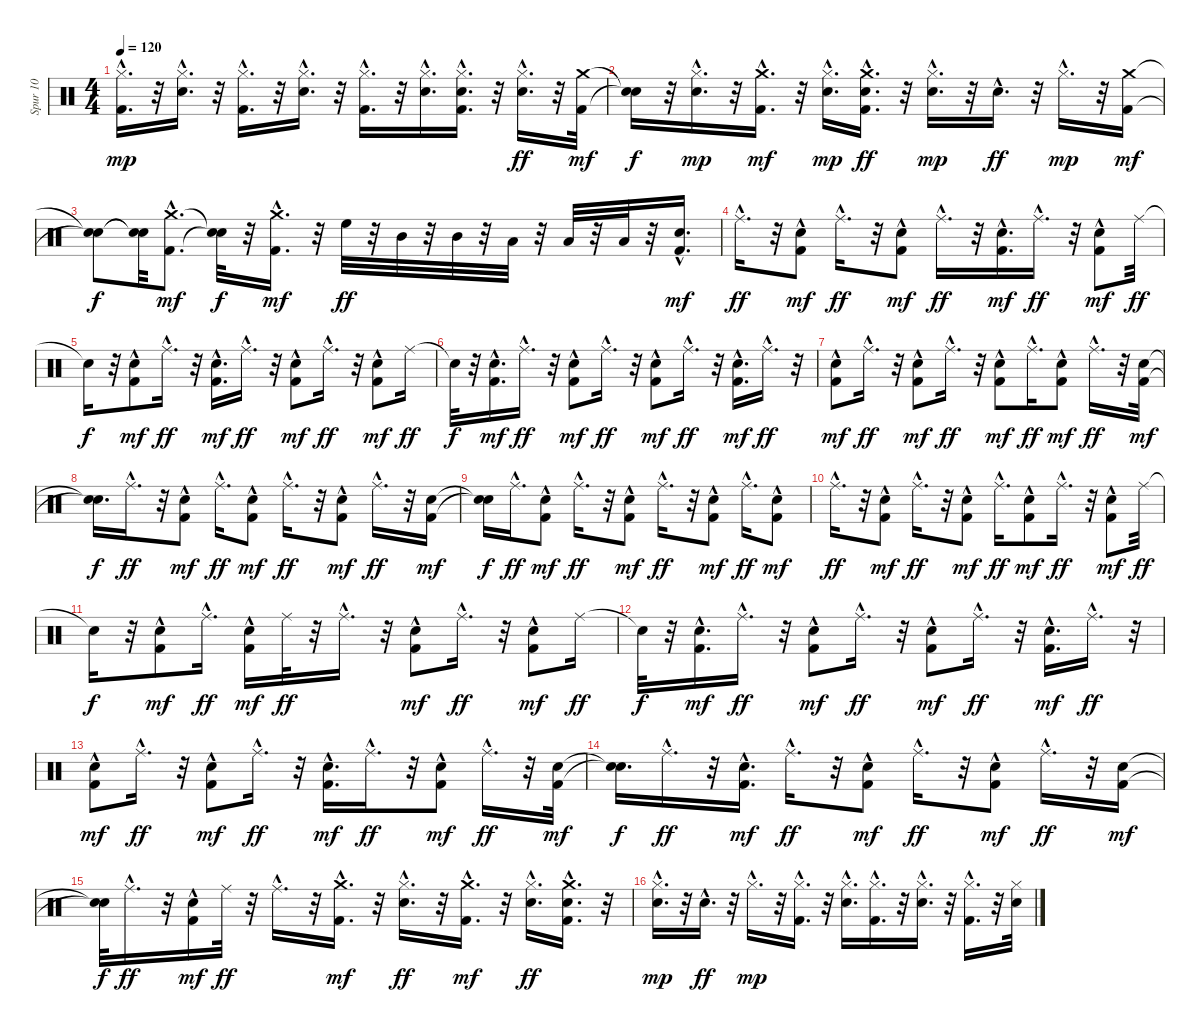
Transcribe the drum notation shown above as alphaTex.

\track ("Spur 10" "Spur 10") {instrument percussion}
\staff {score}
\articulation defaults
\ts (4 4)
\tempo 120
\clef neutral
\ks c
("Kick (hit) 2"{hac} "Hi-Hat (closed)"{hac}).16{d dy mp} r.32 ("Snare (hit) 2"{hac} "Hi-Hat (closed)"{hac}).16{d} r.32 ("Hi-Hat (closed)"{hac} "Kick (hit) 2"{hac}).16{d} r.32 ("Snare (hit) 2"{hac} "Hi-Hat (closed)"{hac}).16{d} r.32 ("Kick (hit) 2"{hac} "Hi-Hat (closed)"{hac}).16{d} r.32 ("Snare (hit) 2"{hac} "Hi-Hat (closed)"{hac}).16{d} ("Kick (hit) 2"{hac} "Snare (hit) 2"{hac} "Hi-Hat (closed)"{hac}).16{d} r.32 ("Hi-Hat (closed)"{hac} "Snare (hit) 2"{hac}).16{d dy ff} r.32 ("Kick (hit) 2" "Crash medium (hit)").32{dy mf} |
("Snare (hit)"{t} "Snare (hit)"{t}).16{dy f} r.32 ("Snare (hit) 2"{hac} "Hi-Hat (closed)"{hac}).16{d dy mp} r.32 ("Crash medium (hit)"{hac} "Kick (hit) 2"{hac}).16{d dy mf} r.32 ("Snare (hit) 2"{hac} "Hi-Hat (closed)"{hac}).16{d dy mp} ("Crash medium (hit)"{hac} "Snare (hit) 2"{hac} "Kick (hit) 2").16{d dy ff} r.32 ("Snare (hit) 2"{hac} "Hi-Hat (closed)"{hac}).16{d dy mp} r.32 "Snare (hit) 2"{hac}.16{d dy ff} r.32 "Hi-Hat (closed)"{hac}.16{d dy mp} r.32 ("Crash medium (hit)" "Kick (hit) 2").16{dy mf} |
("Snare (hit)"{t} "Snare (hit)"{t}).8{dy f} ("Snare (hit)"{t} "Snare (hit)"{t}).32 ("Crash medium (hit)"{hac} "Kick (hit) 2"{hac}).8{d dy mf} ("Snare (hit)"{t} "Snare (hit)"{t}).32{dy f} r.32 ("Crash medium (hit)"{hac} "Kick (hit) 2"{hac}).16{d dy mf} r.32 "High Floor Tom (hit)".32{dy ff} r.32 "Mid Tom (hit)".32 r.32 "Mid Tom (hit)".32 r.32 "Low Tom (hit)".32 r.32 "Low Tom (hit)".32 r.32 "Low Floor Tom (hit)".32 r.32 ("Kick (hit) 2"{hac} "Hand Clap (hit)"{hac}).16{d dy mf} |
"Ride (middle)"{hac}.16{d dy ff} r.32 ("Hand Clap (hit)"{hac} "Kick (hit) 2"{hac}).8{dy mf} "Ride (middle)"{hac}.16{d dy ff} r.32 ("Hand Clap (hit)"{hac} "Kick (hit) 2"{hac}).8{dy mf} "Ride (middle)"{hac}.16{d dy ff} r.32 ("Hand Clap (hit)"{hac} "Kick (hit) 2"{hac}).16{d dy mf} "Ride (middle)"{hac}.16{d dy ff} r.32 ("Kick (hit) 2"{hac} "Hand Clap (hit)"{hac}).8{dy mf} "Ride (middle)".32{dy ff} |
"Snare (hit)"{t}.16{dy f} r.32 ("Hand Clap (hit)"{hac} "Kick (hit) 2"{hac}).8{dy mf} "Ride (middle)"{hac}.16{d dy ff} r.32 ("Hand Clap (hit)"{hac} "Kick (hit) 2"{hac}).16{d dy mf} "Ride (middle)"{hac}.16{d dy ff} r.32 ("Hand Clap (hit)"{hac} "Kick (hit) 2"{hac}).8{dy mf} "Ride (middle)"{hac}.16{d dy ff} r.32 ("Kick (hit) 2"{hac} "Hand Clap (hit)"{hac}).8{dy mf} "Ride (middle)".16{dy ff} |
"Snare (hit)"{t}.32{dy f} r.32 ("Hand Clap (hit)"{hac} "Kick (hit) 2"{hac}).16{d dy mf} "Ride (middle)"{hac}.16{d dy ff} r.32 ("Hand Clap (hit)"{hac} "Kick (hit) 2"{hac}).8{dy mf} "Ride (middle)"{hac}.16{d dy ff} r.32 ("Hand Clap (hit)"{hac} "Kick (hit) 2"{hac}).8{dy mf} "Ride (middle)"{hac}.16{d dy ff} r.32 ("Kick (hit) 2"{hac} "Hand Clap (hit)"{hac}).16{d dy mf} "Ride (middle)"{hac}.16{d dy ff} r.32 |
("Hand Clap (hit)"{hac} "Kick (hit) 2"{hac}).8{dy mf} "Ride (middle)"{hac}.16{d dy ff} r.32 ("Hand Clap (hit)"{hac} "Kick (hit) 2"{hac}).8{dy mf} "Ride (middle)"{hac}.16{d dy ff} r.32 ("Hand Clap (hit)"{hac} "Kick (hit) 2"{hac}).8{dy mf} "Ride (middle)"{hac}.16{d dy ff} ("Kick (hit) 2"{hac} "Hand Clap (hit)"{hac}).8{dy mf} "Ride (middle)"{hac}.16{d dy ff} r.32 ("Hand Clap (hit)" "Kick (hit) 2").32{dy mf} |
("Snare (hit)"{t} "Snare (hit)"{t}).16{d dy f} "Ride (middle)"{hac}.16{d dy ff} r.32 ("Hand Clap (hit)"{hac} "Kick (hit) 2"{hac}).8{dy mf} "Ride (middle)"{hac}.16{d dy ff} ("Hand Clap (hit)"{hac} "Kick (hit) 2"{hac}).8{dy mf} "Ride (middle)"{hac}.16{d dy ff} r.32 ("Kick (hit) 2"{hac} "Hand Clap (hit)"{hac}).8{dy mf} "Ride (middle)"{hac}.16{d dy ff} r.32 ("Hand Clap (hit)" "Kick (hit) 2").16{dy mf} |
("Snare (hit)"{t} "Snare (hit)"{t}).16{dy f} "Ride (middle)"{hac}.16{d dy ff} ("Hand Clap (hit)"{hac} "Kick (hit) 2"{hac}).8{dy mf} "Ride (middle)"{hac}.16{d dy ff} r.32 ("Hand Clap (hit)"{hac} "Kick (hit) 2"{hac}).8{dy mf} "Ride (middle)"{hac}.16{d dy ff} r.32 ("Kick (hit) 2"{hac} "Hand Clap (hit)"{hac}).8{dy mf} "Ride (middle)"{hac}.16{d dy ff} ("Hand Clap (hit)"{hac} "Kick (hit) 2"{hac}).8{dy mf} |
"Ride (middle)"{hac}.16{d dy ff} r.32 ("Hand Clap (hit)"{hac} "Kick (hit) 2"{hac}).8{dy mf} "Ride (middle)"{hac}.16{d dy ff} r.32 ("Hand Clap (hit)"{hac} "Kick (hit) 2"{hac}).8{dy mf} "Ride (middle)"{hac}.16{d dy ff} ("Kick (hit) 2"{hac} "Hand Clap (hit)"{hac}).8{dy mf} "Ride (middle)"{hac}.16{d dy ff} r.32 ("Hand Clap (hit)"{hac} "Kick (hit) 2"{hac}).8{dy mf} "Ride (middle)".32{dy ff} |
"Snare (hit)"{t}.16{dy f} r.32 ("Hand Clap (hit)"{hac} "Kick (hit) 2"{hac}).8{dy mf} "Ride (middle)"{hac}.16{d dy ff} ("Hand Clap (hit)"{hac} "Kick (hit) 2"{hac}).16{dy mf} "Ride (middle)".32{dy ff} r.32 "Ride (middle)"{hac}.16{d} r.32 ("Kick (hit) 2"{hac} "Hand Clap (hit)"{hac}).8{dy mf} "Ride (middle)"{hac}.16{d dy ff} r.32 ("Hand Clap (hit)"{hac} "Kick (hit) 2"{hac}).8{dy mf} "Ride (middle)".16{dy ff} |
"Snare (hit)"{t}.32{dy f} r.32 ("Hand Clap (hit)"{hac} "Kick (hit) 2"{hac}).16{d dy mf} "Ride (middle)"{hac}.16{d dy ff} r.32 ("Hand Clap (hit)"{hac} "Kick (hit) 2"{hac}).8{dy mf} "Ride (middle)"{hac}.16{d dy ff} r.32 ("Kick (hit) 2"{hac} "Hand Clap (hit)"{hac}).8{dy mf} "Ride (middle)"{hac}.16{d dy ff} r.32 ("Hand Clap (hit)"{hac} "Kick (hit) 2"{hac}).16{d dy mf} "Ride (middle)"{hac}.16{d dy ff} r.32 |
("Hand Clap (hit)"{hac} "Kick (hit) 2"{hac}).8{dy mf} "Ride (middle)"{hac}.16{d dy ff} r.32 ("Hand Clap (hit)"{hac} "Kick (hit) 2"{hac}).8{dy mf} "Ride (middle)"{hac}.16{d dy ff} r.32 ("Kick (hit) 2"{hac} "Hand Clap (hit)"{hac}).16{d dy mf} "Ride (middle)"{hac}.16{d dy ff} r.32 ("Hand Clap (hit)"{hac} "Kick (hit) 2"{hac}).8{dy mf} "Ride (middle)"{hac}.16{d dy ff} r.32 ("Hand Clap (hit)" "Kick (hit) 2").32{dy mf} |
("Snare (hit)"{t} "Snare (hit)"{t}).16{d dy f} "Ride (middle)"{hac}.16{d dy ff} r.32 ("Hand Clap (hit)"{hac} "Kick (hit) 2"{hac}).16{d dy mf} "Ride (middle)"{hac}.16{d dy ff} r.32 ("Kick (hit) 2"{hac} "Hand Clap (hit)"{hac}).8{dy mf} "Ride (middle)"{hac}.16{d dy ff} r.32 ("Hand Clap (hit)"{hac} "Kick (hit) 2"{hac}).8{dy mf} "Ride (middle)"{hac}.16{d dy ff} r.32 ("Hand Clap (hit)" "Kick (hit) 2").16{dy mf} |
("Snare (hit)"{t} "Snare (hit)"{t}).32{dy f} "Ride (middle)"{hac}.16{d dy ff} r.32 ("Hand Clap (hit)"{hac} "Kick (hit) 2"{hac}).16{dy mf} "Ride (middle)".32{dy ff} r.32 "Ride (middle)"{hac}.16{d} r.32 ("Crash medium (hit)"{hac} "Kick (hit) 2"{hac}).16{d dy mf} r.32 ("Hi-Hat (closed)"{hac} "Snare (hit) 2"{hac}).16{d dy ff} r.32 ("Crash medium (hit)"{hac} "Kick (hit) 2"{hac}).16{d dy mf} r.32 ("Hi-Hat (closed)"{hac} "Snare (hit) 2"{hac}).16{d dy ff} ("Crash medium (hit)"{hac} "Kick (hit) 2"{hac} "Snare (hit) 2"{hac}).16{d} r.32 |
("Snare (hit) 2"{hac} "Hi-Hat (closed)"{hac}).16{d dy mp} r.32 "Snare (hit) 2"{hac}.16{d dy ff} r.32 "Hi-Hat (closed)"{hac}.16{d dy mp} r.32 ("Kick (hit) 2"{hac} "Hi-Hat (closed)"{hac}).16{d} r.32 ("Snare (hit) 2"{hac} "Hi-Hat (closed)"{hac}).16{d} ("Hi-Hat (closed)"{hac} "Kick (hit) 2"{hac}).16{d} r.32 ("Snare (hit) 2"{hac} "Hi-Hat (closed)"{hac}).16{d} r.32 ("Kick (hit) 2"{hac} "Hi-Hat (closed)"{hac}).16{d} r.32 ("Snare (hit) 2" "Hi-Hat (closed)").32
